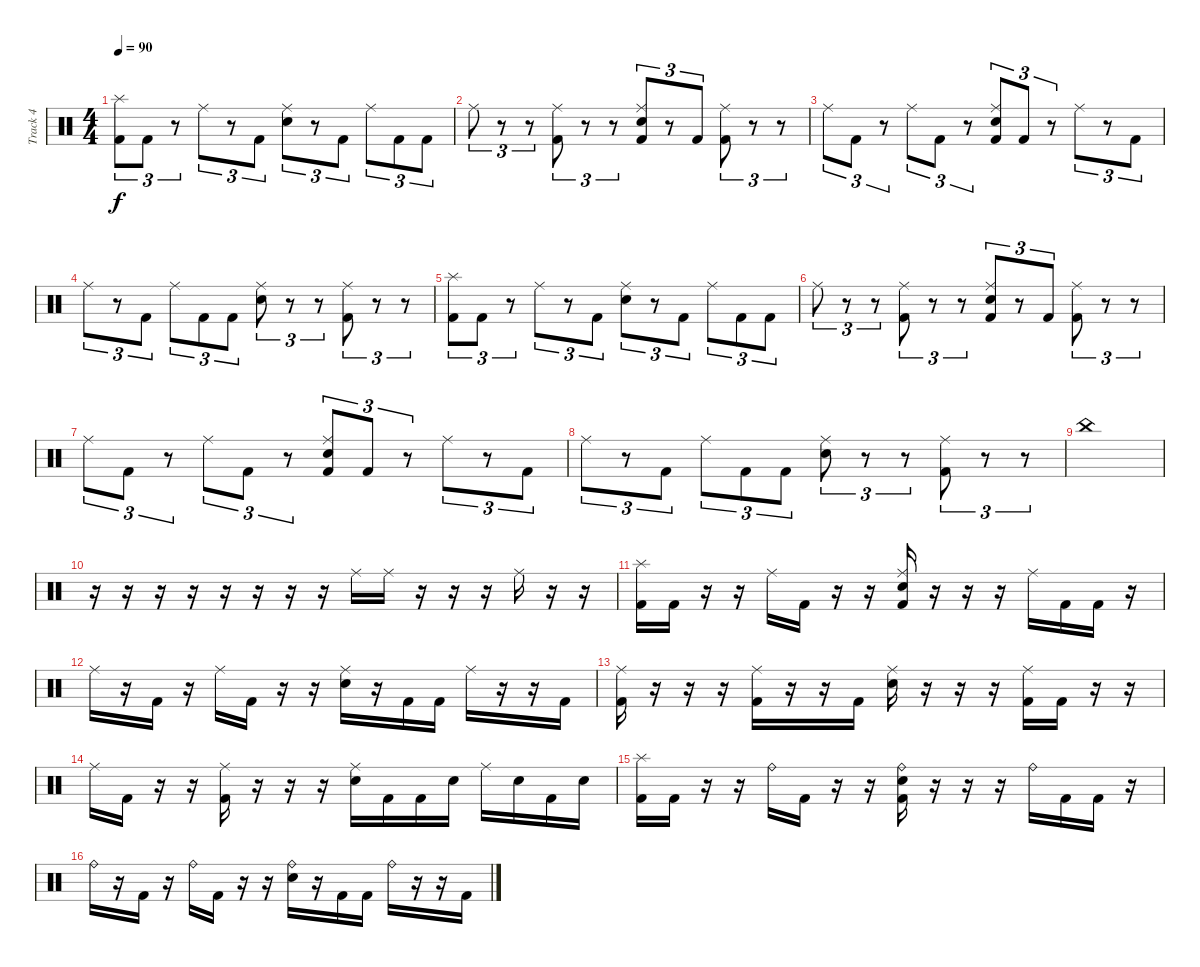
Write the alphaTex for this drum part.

\track ("Track 4" "Track 4") {instrument percussion}
\staff {score}
\articulation defaults
\ts (4 4)
\tempo 90
\clef neutral
\ks c
("Splash (hit)" "Kick (hit) 2").8{tu (3 2) dy f} "Kick (hit) 2".8{tu (3 2)} r.8{tu (3 2)} "Ride (middle)".8{tu (3 2)} r.8{tu (3 2)} "Kick (hit) 2".8{tu (3 2)} ("Ride (middle)" "Electric Snare (hit)").8{tu (3 2)} r.8{tu (3 2)} "Kick (hit) 2".8{tu (3 2)} "Ride (middle)".8{tu (3 2)} "Kick (hit) 2".8{tu (3 2)} "Kick (hit) 2".8{tu (3 2)} |
"Ride (middle)".8{tu (3 2)} r.8{tu (3 2)} r.8{tu (3 2)} ("Ride (middle)" "Kick (hit) 2").8{tu (3 2)} r.8{tu (3 2)} r.8{tu (3 2)} ("Ride (middle)" "Electric Snare (hit)" "Kick (hit) 2").8{tu (3 2)} r.8{tu (3 2)} "Kick (hit) 2".8{tu (3 2)} ("Ride (middle)" "Kick (hit) 2").8{tu (3 2)} r.8{tu (3 2)} r.8{tu (3 2)} |
"Ride (middle)".8{tu (3 2)} "Kick (hit) 2".8{tu (3 2)} r.8{tu (3 2)} "Ride (middle)".8{tu (3 2)} "Kick (hit) 2".8{tu (3 2)} r.8{tu (3 2)} ("Ride (middle)" "Electric Snare (hit)" "Kick (hit) 2").8{tu (3 2)} "Kick (hit) 2".8{tu (3 2)} r.8{tu (3 2)} "Ride (middle)".8{tu (3 2)} r.8{tu (3 2)} "Kick (hit) 2".8{tu (3 2)} |
"Ride (middle)".8{tu (3 2)} r.8{tu (3 2)} "Kick (hit) 2".8{tu (3 2)} "Ride (middle)".8{tu (3 2)} "Kick (hit) 2".8{tu (3 2)} "Kick (hit) 2".8{tu (3 2)} ("Ride (middle)" "Electric Snare (hit)").8{tu (3 2)} r.8{tu (3 2)} r.8{tu (3 2)} ("Ride (middle)" "Kick (hit) 2").8{tu (3 2)} r.8{tu (3 2)} r.8{tu (3 2)} |
("Splash (hit)" "Kick (hit) 2").8{tu (3 2)} "Kick (hit) 2".8{tu (3 2)} r.8{tu (3 2)} "Ride (middle)".8{tu (3 2)} r.8{tu (3 2)} "Kick (hit) 2".8{tu (3 2)} ("Ride (middle)" "Electric Snare (hit)").8{tu (3 2)} r.8{tu (3 2)} "Kick (hit) 2".8{tu (3 2)} "Ride (middle)".8{tu (3 2)} "Kick (hit) 2".8{tu (3 2)} "Kick (hit) 2".8{tu (3 2)} |
"Ride (middle)".8{tu (3 2)} r.8{tu (3 2)} r.8{tu (3 2)} ("Ride (middle)" "Kick (hit) 2").8{tu (3 2)} r.8{tu (3 2)} r.8{tu (3 2)} ("Ride (middle)" "Electric Snare (hit)" "Kick (hit) 2").8{tu (3 2)} r.8{tu (3 2)} "Kick (hit) 2".8{tu (3 2)} ("Ride (middle)" "Kick (hit) 2").8{tu (3 2)} r.8{tu (3 2)} r.8{tu (3 2)} |
"Ride (middle)".8{tu (3 2)} "Kick (hit) 2".8{tu (3 2)} r.8{tu (3 2)} "Ride (middle)".8{tu (3 2)} "Kick (hit) 2".8{tu (3 2)} r.8{tu (3 2)} ("Ride (middle)" "Electric Snare (hit)" "Kick (hit) 2").8{tu (3 2)} "Kick (hit) 2".8{tu (3 2)} r.8{tu (3 2)} "Ride (middle)".8{tu (3 2)} r.8{tu (3 2)} "Kick (hit) 2".8{tu (3 2)} |
"Ride (middle)".8{tu (3 2)} r.8{tu (3 2)} "Kick (hit) 2".8{tu (3 2)} "Ride (middle)".8{tu (3 2)} "Kick (hit) 2".8{tu (3 2)} "Kick (hit) 2".8{tu (3 2)} ("Ride (middle)" "Electric Snare (hit)").8{tu (3 2)} r.8{tu (3 2)} r.8{tu (3 2)} ("Ride (middle)" "Kick (hit) 2").8{tu (3 2)} r.8{tu (3 2)} r.8{tu (3 2)} |
"China (hit)".1 |
r.16 r.16 r.16 r.16 r.16 r.16 r.16 r.16 "Ride (middle)".16 "Ride (middle)".16 r.16 r.16 r.16 "Ride (middle)".16 r.16 r.16 |
("Splash (hit)" "Kick (hit) 2").16 "Kick (hit) 2".16 r.16 r.16 "Ride (middle)".16 "Kick (hit) 2".16 r.16 r.16 ("Ride (middle)" "Electric Snare (hit)" "Kick (hit) 2").16 r.16 r.16 r.16 "Ride (middle)".16 "Kick (hit) 2".16 "Kick (hit) 2".16 r.16 |
"Ride (middle)".16 r.16 "Kick (hit) 2".16 r.16 "Ride (middle)".16 "Kick (hit) 2".16 r.16 r.16 ("Ride (middle)" "Electric Snare (hit)").16 r.16 "Kick (hit) 2".16 "Kick (hit) 2".16 "Ride (middle)".16 r.16 r.16 "Kick (hit) 2".16 |
("Ride (middle)" "Kick (hit) 2").16 r.16 r.16 r.16 ("Ride (middle)" "Kick (hit) 2").16 r.16 r.16 "Kick (hit) 2".16 ("Ride (middle)" "Electric Snare (hit)").16 r.16 r.16 r.16 ("Ride (middle)" "Kick (hit) 2").16 "Kick (hit) 2".16 r.16 r.16 |
"Ride (middle)".16 "Kick (hit) 2".16 r.16 r.16 ("Ride (middle)" "Kick (hit) 2").16 r.16 r.16 r.16 ("Ride (middle)" "Electric Snare (hit)").16 "Kick (hit) 2".16 "Kick (hit) 2".16 "Electric Snare (hit)".16 "Ride (middle)".16 "Electric Snare (hit)".16 "Kick (hit) 2".16 "Electric Snare (hit)".16 |
("Splash (hit)" "Kick (hit) 2").16 "Kick (hit) 2".16 r.16 r.16 "Ride (bell)".16 "Kick (hit) 2".16 r.16 r.16 ("Ride (bell)" "Electric Snare (hit)" "Kick (hit) 2").16 r.16 r.16 r.16 "Ride (bell)".16 "Kick (hit) 2".16 "Kick (hit) 2".16 r.16 |
"Ride (bell)".16 r.16 "Kick (hit) 2".16 r.16 "Ride (bell)".16 "Kick (hit) 2".16 r.16 r.16 ("Ride (bell)" "Electric Snare (hit)").16 r.16 "Kick (hit) 2".16 "Kick (hit) 2".16 "Ride (bell)".16 r.16 r.16 "Kick (hit) 2".16
